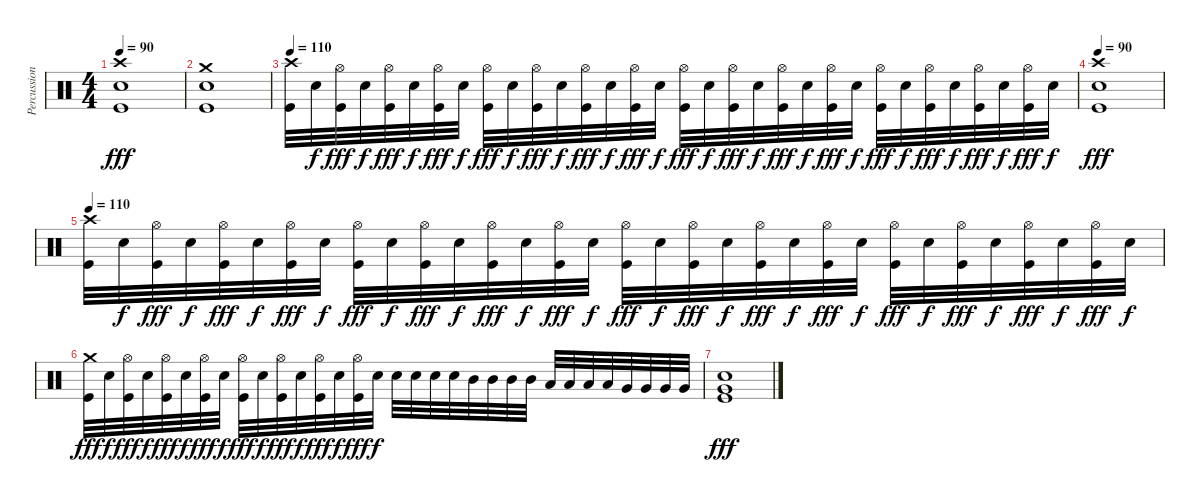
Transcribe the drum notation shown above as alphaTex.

\track ("Percussion" "Percussion") {instrument percussion}
\staff {score}
\articulation defaults
\ts (4 4)
\tempo 90
\clef neutral
\ks c
("Crash high (hit)" "Snare (hit) 2" "Kick (hit)").1{dy fff} |
("Crash medium (hit)" "Snare (hit) 2" "Kick (hit)").1 |
\tempo 110
("Crash high (hit)" "Kick (hit)").32 "Electric Snare (hit)".32{dy f} ("Hi-Hat (open)" "Kick (hit)").32{dy fff} "Electric Snare (hit)".32{dy f} ("Hi-Hat (open)" "Kick (hit)").32{dy fff} "Electric Snare (hit)".32{dy f} ("Hi-Hat (open)" "Kick (hit)").32{dy fff} "Electric Snare (hit)".32{dy f} ("Hi-Hat (open)" "Kick (hit)").32{dy fff} "Electric Snare (hit)".32{dy f} ("Hi-Hat (open)" "Kick (hit)").32{dy fff} "Electric Snare (hit)".32{dy f} ("Hi-Hat (open)" "Kick (hit)").32{dy fff} "Electric Snare (hit)".32{dy f} ("Hi-Hat (open)" "Kick (hit)").32{dy fff} "Electric Snare (hit)".32{dy f} ("Hi-Hat (open)" "Kick (hit)").32{dy fff} "Electric Snare (hit)".32{dy f} ("Hi-Hat (open)" "Kick (hit)").32{dy fff} "Electric Snare (hit)".32{dy f} ("Hi-Hat (open)" "Kick (hit)").32{dy fff} "Electric Snare (hit)".32{dy f} ("Hi-Hat (open)" "Kick (hit)").32{dy fff} "Electric Snare (hit)".32{dy f} ("Hi-Hat (open)" "Kick (hit)").32{dy fff} "Electric Snare (hit)".32{dy f} ("Hi-Hat (open)" "Kick (hit)").32{dy fff} "Electric Snare (hit)".32{dy f} ("Hi-Hat (open)" "Kick (hit)").32{dy fff} "Electric Snare (hit)".32{dy f} ("Hi-Hat (open)" "Kick (hit)").32{dy fff} "Electric Snare (hit)".32{dy f} |
\tempo 90
("Crash high (hit)" "Snare (hit) 2" "Kick (hit)").1{dy fff} |
\tempo 110
("Crash high (hit)" "Kick (hit)").32 "Electric Snare (hit)".32{dy f} ("Hi-Hat (open)" "Kick (hit)").32{dy fff} "Electric Snare (hit)".32{dy f} ("Hi-Hat (open)" "Kick (hit)").32{dy fff} "Electric Snare (hit)".32{dy f} ("Hi-Hat (open)" "Kick (hit)").32{dy fff} "Electric Snare (hit)".32{dy f} ("Hi-Hat (open)" "Kick (hit)").32{dy fff} "Electric Snare (hit)".32{dy f} ("Hi-Hat (open)" "Kick (hit)").32{dy fff} "Electric Snare (hit)".32{dy f} ("Hi-Hat (open)" "Kick (hit)").32{dy fff} "Electric Snare (hit)".32{dy f} ("Hi-Hat (open)" "Kick (hit)").32{dy fff} "Electric Snare (hit)".32{dy f} ("Hi-Hat (open)" "Kick (hit)").32{dy fff} "Electric Snare (hit)".32{dy f} ("Hi-Hat (open)" "Kick (hit)").32{dy fff} "Electric Snare (hit)".32{dy f} ("Hi-Hat (open)" "Kick (hit)").32{dy fff} "Electric Snare (hit)".32{dy f} ("Hi-Hat (open)" "Kick (hit)").32{dy fff} "Electric Snare (hit)".32{dy f} ("Hi-Hat (open)" "Kick (hit)").32{dy fff} "Electric Snare (hit)".32{dy f} ("Hi-Hat (open)" "Kick (hit)").32{dy fff} "Electric Snare (hit)".32{dy f} ("Hi-Hat (open)" "Kick (hit)").32{dy fff} "Electric Snare (hit)".32{dy f} ("Hi-Hat (open)" "Kick (hit)").32{dy fff} "Electric Snare (hit)".32{dy f} |
("Crash medium (hit)" "Kick (hit)").32{dy fff} "Electric Snare (hit)".32{dy f} ("Hi-Hat (open)" "Kick (hit)").32{dy fff} "Electric Snare (hit)".32{dy f} ("Hi-Hat (open)" "Kick (hit)").32{dy fff} "Electric Snare (hit)".32{dy f} ("Hi-Hat (open)" "Kick (hit)").32{dy fff} "Electric Snare (hit)".32{dy f} ("Hi-Hat (open)" "Kick (hit)").32{dy fff} "Electric Snare (hit)".32{dy f} ("Hi-Hat (open)" "Kick (hit)").32{dy fff} "Electric Snare (hit)".32{dy f} ("Hi-Hat (open)" "Kick (hit)").32{dy fff} "Electric Snare (hit)".32{dy f} ("Hi-Hat (open)" "Kick (hit)").32{dy fff} "Electric Snare (hit)".32{dy f} "Electric Snare (hit)".32 "Electric Snare (hit)".32 "Electric Snare (hit)".32 "Electric Snare (hit)".32 "Mid Tom (hit)".32 "Mid Tom (hit)".32 "Mid Tom (hit)".32 "Mid Tom (hit)".32 "Low Tom (hit)".32 "Low Tom (hit)".32 "Low Tom (hit)".32 "Low Tom (hit)".32 "Very Low Tom (hit)".32 "Very Low Tom (hit)".32 "Very Low Tom (hit)".32 "Very Low Tom (hit)".32 |
("Very Low Tom (hit)" "Electric Snare (hit)" "Kick (hit)").1{dy fff}
